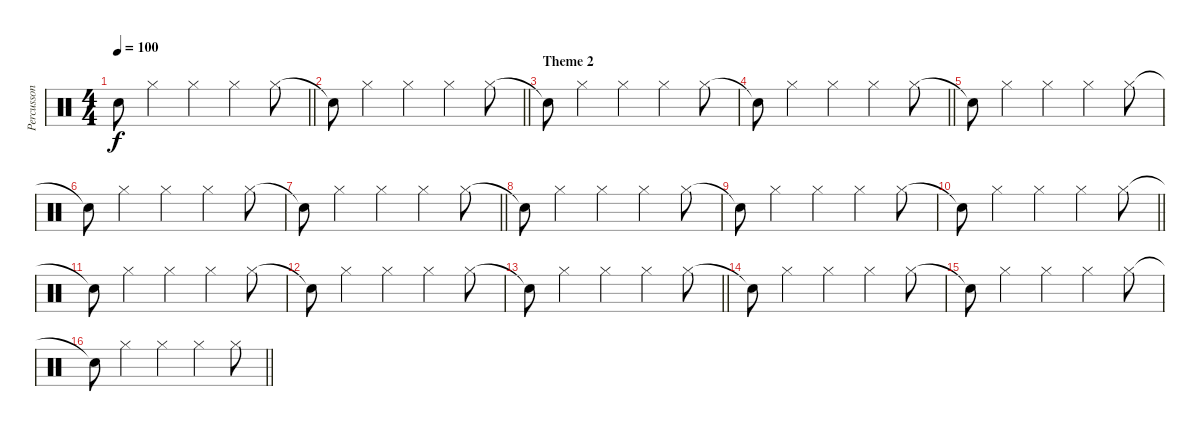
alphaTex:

\track ("Percusson" "Percusson") {instrument percussion}
\staff {score}
\articulation defaults
\ts (4 4)
\tempo 100
\clef neutral
\barLineRight lightlight
\ks c "Snare (hit)"{t}.8{dy f} "Hi-Hat (closed)".4 "Hi-Hat (closed)".4 "Hi-Hat (closed)".4 "Hi-Hat (closed)".8
|
\barLineRight lightlight "Snare (hit)"{t}.8 "Hi-Hat (closed)".4 "Hi-Hat (closed)".4 "Hi-Hat (closed)".4 "Hi-Hat (closed)".8
|
\section ("" "Theme 2")
"Snare (hit)"{t}.8 "Hi-Hat (closed)".4 "Hi-Hat (closed)".4 "Hi-Hat (closed)".4 "Hi-Hat (closed)".8 |
\barLineRight lightlight "Snare (hit)"{t}.8 "Hi-Hat (closed)".4 "Hi-Hat (closed)".4 "Hi-Hat (closed)".4 "Hi-Hat (closed)".8
|
"Snare (hit)"{t}.8 "Hi-Hat (closed)".4 "Hi-Hat (closed)".4 "Hi-Hat (closed)".4 "Hi-Hat (closed)".8 |
"Snare (hit)"{t}.8 "Hi-Hat (closed)".4 "Hi-Hat (closed)".4 "Hi-Hat (closed)".4 "Hi-Hat (closed)".8 |
\barLineRight lightlight "Snare (hit)"{t}.8 "Hi-Hat (closed)".4 "Hi-Hat (closed)".4 "Hi-Hat (closed)".4 "Hi-Hat (closed)".8
|
"Snare (hit)"{t}.8 "Hi-Hat (closed)".4 "Hi-Hat (closed)".4 "Hi-Hat (closed)".4 "Hi-Hat (closed)".8 |
"Snare (hit)"{t}.8 "Hi-Hat (closed)".4 "Hi-Hat (closed)".4 "Hi-Hat (closed)".4 "Hi-Hat (closed)".8 |
\barLineRight lightlight "Snare (hit)"{t}.8 "Hi-Hat (closed)".4 "Hi-Hat (closed)".4 "Hi-Hat (closed)".4 "Hi-Hat (closed)".8
|
"Snare (hit)"{t}.8 "Hi-Hat (closed)".4 "Hi-Hat (closed)".4 "Hi-Hat (closed)".4 "Hi-Hat (closed)".8 |
"Snare (hit)"{t}.8 "Hi-Hat (closed)".4 "Hi-Hat (closed)".4 "Hi-Hat (closed)".4 "Hi-Hat (closed)".8 |
\barLineRight lightlight "Snare (hit)"{t}.8 "Hi-Hat (closed)".4 "Hi-Hat (closed)".4 "Hi-Hat (closed)".4 "Hi-Hat (closed)".8
|
"Snare (hit)"{t}.8 "Hi-Hat (closed)".4 "Hi-Hat (closed)".4 "Hi-Hat (closed)".4 "Hi-Hat (closed)".8 |
"Snare (hit)"{t}.8 "Hi-Hat (closed)".4 "Hi-Hat (closed)".4 "Hi-Hat (closed)".4 "Hi-Hat (closed)".8 |
\barLineRight lightlight "Snare (hit)"{t}.8 "Hi-Hat (closed)".4 "Hi-Hat (closed)".4 "Hi-Hat (closed)".4 "Hi-Hat (closed)".8
